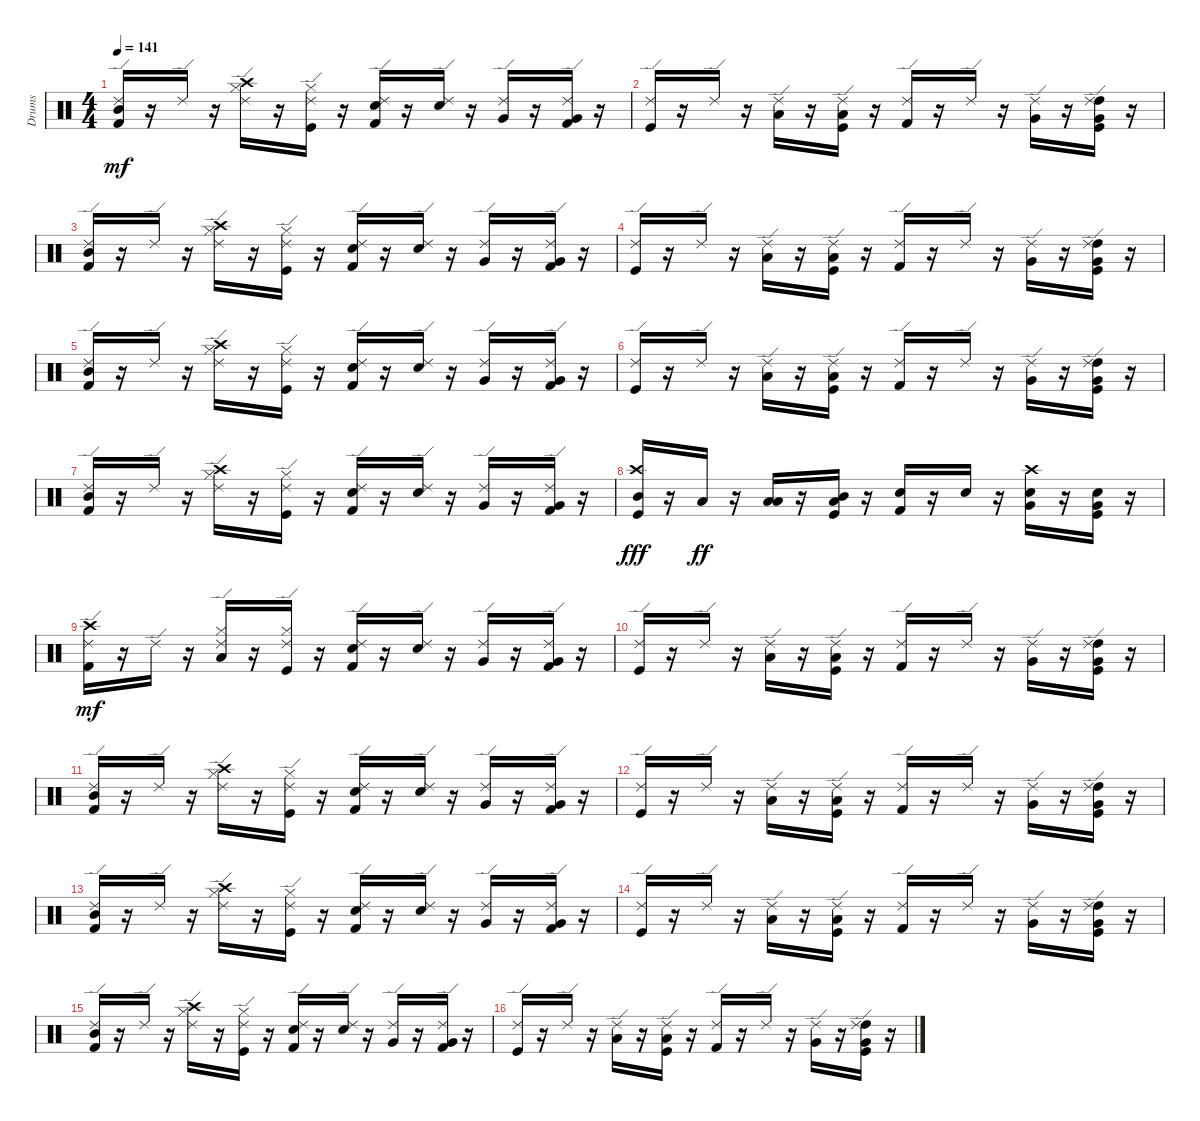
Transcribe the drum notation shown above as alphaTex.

\track ("Drums" "Drums") {instrument percussion}
\staff {score}
\articulation defaults
\ts (4 4)
\tempo 141
\clef neutral
\ks c
("Kick (hit) 2" "Ride (edge) 2" "Mid Tom (hit)").16{dy mf} r.16 "Ride (edge) 2".16 r.16 ("Crash high (hit)" "Hi-Hat (closed)" "Ride (edge) 2").16 r.16 ("Kick (hit)" "Hi-Hat (closed)" "Ride (edge) 2").16 r.16 ("Snare (hit) 2" "Kick (hit) 2" "Ride (edge) 2").16 r.16 ("Snare (hit) 2" "Ride (edge) 2").16 r.16 ("Very Low Tom (hit)" "Ride (edge) 2").16 r.16 ("Kick (hit) 2" "Very Low Tom (hit)" "Ride (edge) 2").16 r.16 |
("Kick (hit)" "Ride (edge) 2").16 r.16 "Ride (edge) 2".16 r.16 ("Low Floor Tom (hit)" "Ride (edge) 2").16 r.16 ("Kick (hit)" "Low Floor Tom (hit)" "Ride (edge) 2").16 r.16 ("Kick (hit) 2" "Ride (edge) 2").16 r.16 "Ride (edge) 2".16 r.16 ("Very Low Tom (hit)" "Ride (edge) 2").16 r.16 ("High Tom (hit)" "Kick (hit)" "Very Low Tom (hit)" "Ride (edge) 2").16 r.16 |
("Kick (hit) 2" "Ride (edge) 2" "Mid Tom (hit)").16 r.16 "Ride (edge) 2".16 r.16 ("Crash high (hit)" "Hi-Hat (closed)" "Ride (edge) 2").16 r.16 ("Kick (hit)" "Hi-Hat (closed)" "Ride (edge) 2").16 r.16 ("Snare (hit) 2" "Kick (hit) 2" "Ride (edge) 2").16 r.16 ("Snare (hit) 2" "Ride (edge) 2").16 r.16 ("Very Low Tom (hit)" "Ride (edge) 2").16 r.16 ("Kick (hit) 2" "Very Low Tom (hit)" "Ride (edge) 2").16 r.16 |
("Kick (hit)" "Ride (edge) 2").16 r.16 "Ride (edge) 2".16 r.16 ("Low Floor Tom (hit)" "Ride (edge) 2").16 r.16 ("Kick (hit)" "Low Floor Tom (hit)" "Ride (edge) 2").16 r.16 ("Kick (hit) 2" "Ride (edge) 2").16 r.16 "Ride (edge) 2".16 r.16 ("Very Low Tom (hit)" "Ride (edge) 2").16 r.16 ("High Tom (hit)" "Kick (hit)" "Very Low Tom (hit)" "Ride (edge) 2").16 r.16 |
("Kick (hit) 2" "Ride (edge) 2" "Mid Tom (hit)").16 r.16 "Ride (edge) 2".16 r.16 ("Crash high (hit)" "Hi-Hat (closed)" "Ride (edge) 2").16 r.16 ("Kick (hit)" "Hi-Hat (closed)" "Ride (edge) 2").16 r.16 ("Snare (hit) 2" "Kick (hit) 2" "Ride (edge) 2").16 r.16 ("Snare (hit) 2" "Ride (edge) 2").16 r.16 ("Very Low Tom (hit)" "Ride (edge) 2").16 r.16 ("Kick (hit) 2" "Very Low Tom (hit)" "Ride (edge) 2").16 r.16 |
("Kick (hit)" "Ride (edge) 2").16 r.16 "Ride (edge) 2".16 r.16 ("Low Floor Tom (hit)" "Ride (edge) 2").16 r.16 ("Kick (hit)" "Low Floor Tom (hit)" "Ride (edge) 2").16 r.16 ("Kick (hit) 2" "Ride (edge) 2").16 r.16 "Ride (edge) 2".16 r.16 ("Very Low Tom (hit)" "Ride (edge) 2").16 r.16 ("High Tom (hit)" "Kick (hit)" "Very Low Tom (hit)" "Ride (edge) 2").16 r.16 |
("Kick (hit) 2" "Ride (edge) 2" "Mid Tom (hit)").16 r.16 "Ride (edge) 2".16 r.16 ("Crash high (hit)" "Hi-Hat (closed)" "Ride (edge) 2").16 r.16 ("Kick (hit)" "Hi-Hat (closed)" "Ride (edge) 2").16 r.16 ("Snare (hit) 2" "Kick (hit) 2" "Ride (edge) 2").16 r.16 ("Snare (hit) 2" "Ride (edge) 2").16 r.16 ("Very Low Tom (hit)" "Ride (edge) 2").16 r.16 ("Kick (hit) 2" "Very Low Tom (hit)" "Ride (edge) 2").16 r.16 |
("Kick (hit)" "Mid Tom (hit)" "Crash high (hit)").16{dy fff} r.16 "Low Tom (hit)".16{dy ff} r.16 ("Low Floor Tom (hit)" "Low Tom (hit)").16 r.16 ("Kick (hit)" "Low Floor Tom (hit)" "Mid Tom (hit)").16 r.16 ("Electric Snare (hit)" "Kick (hit) 2").16 r.16 "Snare (hit) 2".16 r.16 ("Snare (hit) 2" "Very Low Tom (hit)" "Crash high (hit)").16 r.16 ("Kick (hit)" "Very Low Tom (hit)" "Snare (hit) 2").16 r.16 |
("Crash high (hit)" "Kick (hit) 2" "Ride (edge) 2").16{dy mf} r.16 "Ride (edge) 2".16 r.16 ("Hi-Hat (closed)" "Low Tom (hit)" "Ride (edge) 2").16 r.16 ("Kick (hit)" "Hi-Hat (closed)" "Ride (edge) 2").16 r.16 ("Snare (hit) 2" "Kick (hit) 2" "Ride (edge) 2").16 r.16 ("Snare (hit) 2" "Ride (edge) 2").16 r.16 ("Very Low Tom (hit)" "Ride (edge) 2").16 r.16 ("Kick (hit) 2" "Very Low Tom (hit)" "Ride (edge) 2").16 r.16 |
("Kick (hit)" "Ride (edge) 2").16 r.16 "Ride (edge) 2".16 r.16 ("Low Floor Tom (hit)" "Ride (edge) 2").16 r.16 ("Kick (hit)" "Low Floor Tom (hit)" "Ride (edge) 2").16 r.16 ("Kick (hit) 2" "Ride (edge) 2").16 r.16 "Ride (edge) 2".16 r.16 ("Very Low Tom (hit)" "Ride (edge) 2").16 r.16 ("High Tom (hit)" "Kick (hit)" "Very Low Tom (hit)" "Ride (edge) 2").16 r.16 |
("Kick (hit) 2" "Ride (edge) 2" "Mid Tom (hit)").16 r.16 "Ride (edge) 2".16 r.16 ("Crash high (hit)" "Hi-Hat (closed)" "Ride (edge) 2").16 r.16 ("Kick (hit)" "Hi-Hat (closed)" "Ride (edge) 2").16 r.16 ("Snare (hit) 2" "Kick (hit) 2" "Ride (edge) 2").16 r.16 ("Snare (hit) 2" "Ride (edge) 2").16 r.16 ("Very Low Tom (hit)" "Ride (edge) 2").16 r.16 ("Kick (hit) 2" "Very Low Tom (hit)" "Ride (edge) 2").16 r.16 |
("Kick (hit)" "Ride (edge) 2").16 r.16 "Ride (edge) 2".16 r.16 ("Low Floor Tom (hit)" "Ride (edge) 2").16 r.16 ("Kick (hit)" "Low Floor Tom (hit)" "Ride (edge) 2").16 r.16 ("Kick (hit) 2" "Ride (edge) 2").16 r.16 "Ride (edge) 2".16 r.16 ("Very Low Tom (hit)" "Ride (edge) 2").16 r.16 ("High Tom (hit)" "Kick (hit)" "Very Low Tom (hit)" "Ride (edge) 2").16 r.16 |
("Kick (hit) 2" "Ride (edge) 2" "Mid Tom (hit)").16 r.16 "Ride (edge) 2".16 r.16 ("Crash high (hit)" "Hi-Hat (closed)" "Ride (edge) 2").16 r.16 ("Kick (hit)" "Hi-Hat (closed)" "Ride (edge) 2").16 r.16 ("Snare (hit) 2" "Kick (hit) 2" "Ride (edge) 2").16 r.16 ("Snare (hit) 2" "Ride (edge) 2").16 r.16 ("Very Low Tom (hit)" "Ride (edge) 2").16 r.16 ("Kick (hit) 2" "Very Low Tom (hit)" "Ride (edge) 2").16 r.16 |
("Kick (hit)" "Ride (edge) 2").16 r.16 "Ride (edge) 2".16 r.16 ("Low Floor Tom (hit)" "Ride (edge) 2").16 r.16 ("Kick (hit)" "Low Floor Tom (hit)" "Ride (edge) 2").16 r.16 ("Kick (hit) 2" "Ride (edge) 2").16 r.16 "Ride (edge) 2".16 r.16 ("Very Low Tom (hit)" "Ride (edge) 2").16 r.16 ("High Tom (hit)" "Kick (hit)" "Very Low Tom (hit)" "Ride (edge) 2").16 r.16 |
("Kick (hit) 2" "Ride (edge) 2" "Mid Tom (hit)").16 r.16 "Ride (edge) 2".16 r.16 ("Crash high (hit)" "Hi-Hat (closed)" "Ride (edge) 2").16 r.16 ("Kick (hit)" "Hi-Hat (closed)" "Ride (edge) 2").16 r.16 ("Snare (hit) 2" "Kick (hit) 2" "Ride (edge) 2").16 r.16 ("Snare (hit) 2" "Ride (edge) 2").16 r.16 ("Very Low Tom (hit)" "Ride (edge) 2").16 r.16 ("Kick (hit) 2" "Very Low Tom (hit)" "Ride (edge) 2").16 r.16 |
("Kick (hit)" "Ride (edge) 2").16 r.16 "Ride (edge) 2".16 r.16 ("Low Floor Tom (hit)" "Ride (edge) 2").16 r.16 ("Kick (hit)" "Low Floor Tom (hit)" "Ride (edge) 2").16 r.16 ("Kick (hit) 2" "Ride (edge) 2").16 r.16 "Ride (edge) 2".16 r.16 ("Very Low Tom (hit)" "Ride (edge) 2").16 r.16 ("High Tom (hit)" "Kick (hit)" "Very Low Tom (hit)" "Ride (edge) 2").16 r.16
